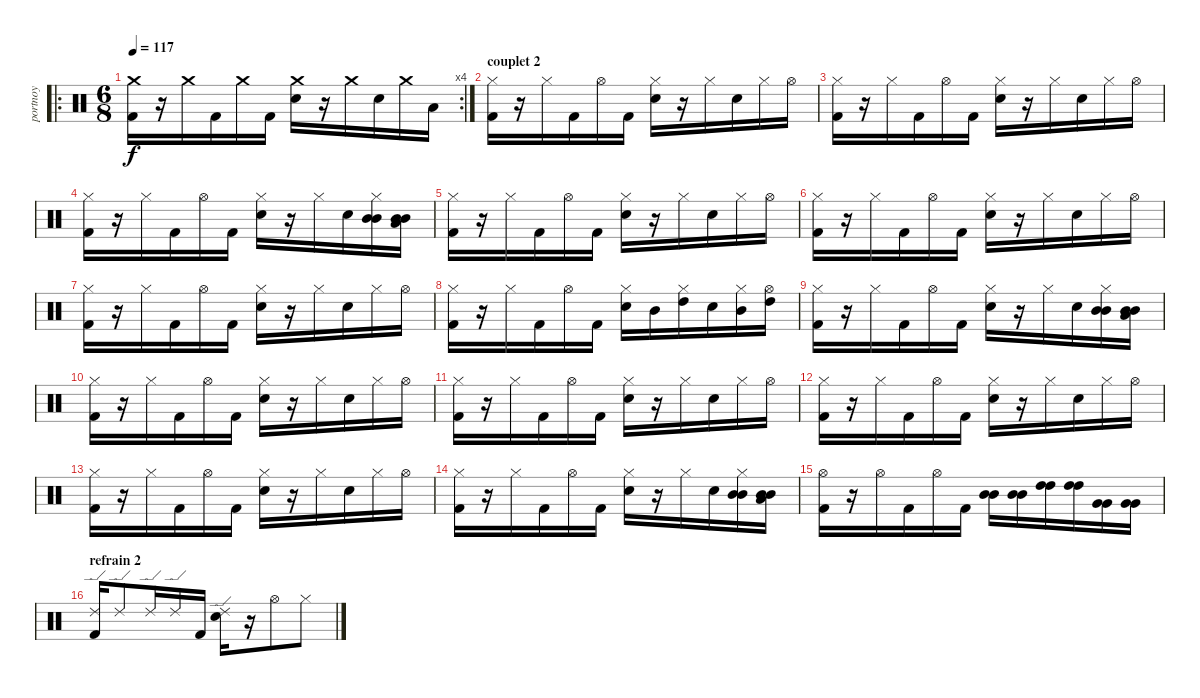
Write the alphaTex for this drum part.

\track ("portnoy" "portnoy") {instrument percussion}
\staff {score}
\articulation defaults
\ro
\rc 4
\ts (6 8)
\tempo 117
\clef neutral
\ks c
("Crash medium (hit)" "Kick (hit) 2").16{dy f} r.16 "Crash medium (hit)".16 "Kick (hit) 2".16 "Crash medium (hit)".16 "Kick (hit) 2".16 ("Crash medium (hit)" "Electric Snare (hit)").16 r.16 "Crash medium (hit)".16 "Electric Snare (hit)".16 "Crash medium (hit)".16 "Low Tom (hit)".16 |
\section ("" "couplet 2")
("Hi-Hat (closed)" "Kick (hit) 2").16 r.16 "Hi-Hat (closed)".16 "Kick (hit) 2".16 "Hi-Hat (open)".16 "Kick (hit) 2".16 ("Hi-Hat (closed)" "Electric Snare (hit)").16 r.16 "Hi-Hat (closed)".16 "Electric Snare (hit)".16 "Hi-Hat (closed)".16 "Hi-Hat (open)".16 |
("Hi-Hat (closed)" "Kick (hit) 2").16 r.16 "Hi-Hat (closed)".16 "Kick (hit) 2".16 "Hi-Hat (open)".16 "Kick (hit) 2".16 ("Hi-Hat (closed)" "Electric Snare (hit)").16 r.16 "Hi-Hat (closed)".16 "Electric Snare (hit)".16 "Hi-Hat (closed)".16 "Hi-Hat (open)".16 |
("Hi-Hat (closed)" "Kick (hit) 2").16 r.16 "Hi-Hat (closed)".16 "Kick (hit) 2".16 "Hi-Hat (open)".16 "Kick (hit) 2".16 ("Hi-Hat (closed)" "Electric Snare (hit)").16 r.16 "Hi-Hat (closed)".16 "Electric Snare (hit)".16 ("Mid Tom (hit)" "Mid Tom (hit)" "Hi-Hat (closed)").16 ("Mid Tom (hit)" "Mid Tom (hit)" "Low Tom (hit)").16 |
("Hi-Hat (closed)" "Kick (hit) 2").16 r.16 "Hi-Hat (closed)".16 "Kick (hit) 2".16 "Hi-Hat (open)".16 "Kick (hit) 2".16 ("Hi-Hat (closed)" "Electric Snare (hit)").16 r.16 "Hi-Hat (closed)".16 "Electric Snare (hit)".16 "Hi-Hat (closed)".16 "Hi-Hat (open)".16 |
("Hi-Hat (closed)" "Kick (hit) 2").16 r.16 "Hi-Hat (closed)".16 "Kick (hit) 2".16 "Hi-Hat (open)".16 "Kick (hit) 2".16 ("Hi-Hat (closed)" "Electric Snare (hit)").16 r.16 "Hi-Hat (closed)".16 "Electric Snare (hit)".16 "Hi-Hat (closed)".16 "Hi-Hat (open)".16 |
("Hi-Hat (closed)" "Kick (hit) 2").16 r.16 "Hi-Hat (closed)".16 "Kick (hit) 2".16 "Hi-Hat (open)".16 "Kick (hit) 2".16 ("Hi-Hat (closed)" "Electric Snare (hit)").16 r.16 "Hi-Hat (closed)".16 "Electric Snare (hit)".16 "Hi-Hat (closed)".16 "Hi-Hat (open)".16 |
("Hi-Hat (closed)" "Kick (hit) 2").16 r.16 "Hi-Hat (closed)".16 "Kick (hit) 2".16 "Hi-Hat (open)".16 "Kick (hit) 2".16 ("Hi-Hat (closed)" "Electric Snare (hit)").16 "Mid Tom (hit)".16 ("High Tom (hit)" "Hi-Hat (closed)").16 "Electric Snare (hit)".16 ("Mid Tom (hit)" "Hi-Hat (closed)").16 ("High Tom (hit)" "Hi-Hat (open)").16 |
("Hi-Hat (closed)" "Kick (hit) 2").16 r.16 "Hi-Hat (closed)".16 "Kick (hit) 2".16 "Hi-Hat (open)".16 "Kick (hit) 2".16 ("Hi-Hat (closed)" "Electric Snare (hit)").16 r.16 "Hi-Hat (closed)".16 "Electric Snare (hit)".16 ("Mid Tom (hit)" "Mid Tom (hit)" "Hi-Hat (closed)").16 ("Mid Tom (hit)" "Mid Tom (hit)" "Low Tom (hit)").16 |
("Hi-Hat (closed)" "Kick (hit) 2").16 r.16 "Hi-Hat (closed)".16 "Kick (hit) 2".16 "Hi-Hat (open)".16 "Kick (hit) 2".16 ("Hi-Hat (closed)" "Electric Snare (hit)").16 r.16 "Hi-Hat (closed)".16 "Electric Snare (hit)".16 "Hi-Hat (closed)".16 "Hi-Hat (open)".16 |
("Hi-Hat (closed)" "Kick (hit) 2").16 r.16 "Hi-Hat (closed)".16 "Kick (hit) 2".16 "Hi-Hat (open)".16 "Kick (hit) 2".16 ("Hi-Hat (closed)" "Electric Snare (hit)").16 r.16 "Hi-Hat (closed)".16 "Electric Snare (hit)".16 "Hi-Hat (closed)".16 "Hi-Hat (open)".16 |
("Hi-Hat (closed)" "Kick (hit) 2").16 r.16 "Hi-Hat (closed)".16 "Kick (hit) 2".16 "Hi-Hat (open)".16 "Kick (hit) 2".16 ("Hi-Hat (closed)" "Electric Snare (hit)").16 r.16 "Hi-Hat (closed)".16 "Electric Snare (hit)".16 "Hi-Hat (closed)".16 "Hi-Hat (open)".16 |
("Hi-Hat (closed)" "Kick (hit) 2").16 r.16 "Hi-Hat (closed)".16 "Kick (hit) 2".16 "Hi-Hat (open)".16 "Kick (hit) 2".16 ("Hi-Hat (closed)" "Electric Snare (hit)").16 r.16 "Hi-Hat (closed)".16 "Electric Snare (hit)".16 "Hi-Hat (closed)".16 "Hi-Hat (open)".16 |
("Hi-Hat (closed)" "Kick (hit) 2").16 r.16 "Hi-Hat (closed)".16 "Kick (hit) 2".16 "Hi-Hat (open)".16 "Kick (hit) 2".16 ("Hi-Hat (closed)" "Electric Snare (hit)").16 r.16 "Hi-Hat (closed)".16 "Electric Snare (hit)".16 ("Mid Tom (hit)" "Mid Tom (hit)" "Hi-Hat (closed)").16 ("Mid Tom (hit)" "Mid Tom (hit)" "Low Tom (hit)").16 |
("Hi-Hat (open)" "Kick (hit) 2").16 r.16 "Hi-Hat (open)".16 "Kick (hit) 2".16 "Hi-Hat (open)".16 "Kick (hit) 2".16 ("Mid Tom (hit)" "Mid Tom (hit)").16 ("Mid Tom (hit)" "Mid Tom (hit)").16 ("High Tom (hit)" "High Tom (hit)").16 ("High Tom (hit)" "High Tom (hit)").16 ("Very Low Tom (hit)" "Very Low Tom (hit)").16 ("Very Low Tom (hit)" "Very Low Tom (hit)").16 |
\section ("" "refrain 2")
("Ride (edge) 2" "Kick (hit) 2").16 "Ride (edge) 2".8 "Ride (edge) 2".16 "Ride (edge) 2".16 "Kick (hit) 2".16 ("Ride (edge) 2" "Electric Snare (hit)").16 r.16 "Hi-Hat (open)".8 "Hi-Hat (closed)".8
